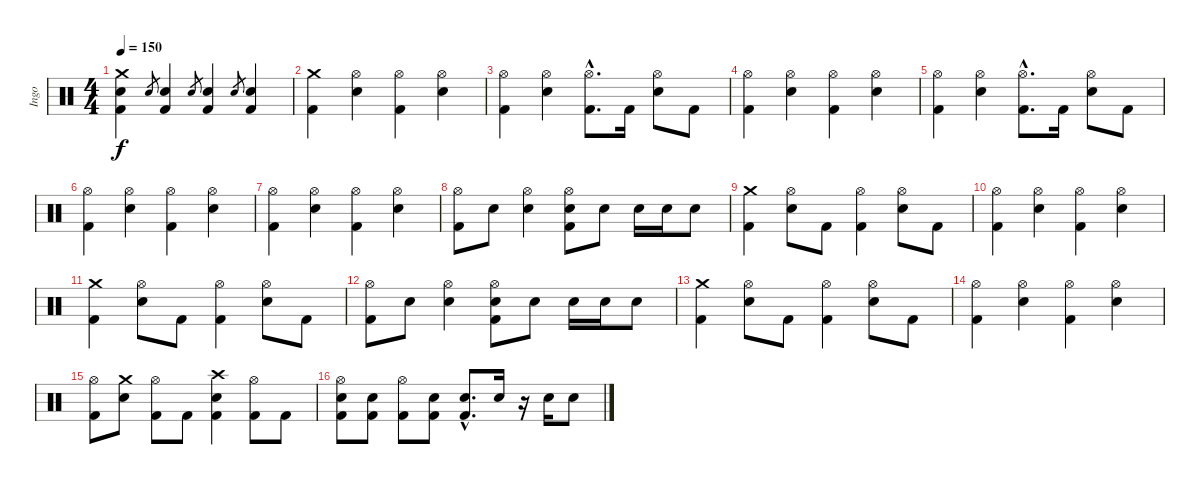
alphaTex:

\track ("Ingo" "Ingo") {instrument percussion}
\staff {score}
\articulation defaults
\ts (4 4)
\tempo 150
\clef neutral
\ks c
("Crash medium (hit)" "Electric Snare (hit)" "Kick (hit) 2").4{dy f} "Electric Snare (hit)".8{gr} ("Electric Snare (hit)" "Kick (hit) 2").4 "Electric Snare (hit)".8{gr} ("Electric Snare (hit)" "Kick (hit) 2").4 "Electric Snare (hit)".8{gr} ("Electric Snare (hit)" "Kick (hit) 2").4 |
("Crash medium (hit)" "Kick (hit) 2").4 ("Hi-Hat (open)" "Electric Snare (hit)").4 ("Hi-Hat (open)" "Kick (hit) 2").4 ("Hi-Hat (open)" "Electric Snare (hit)").4 |
("Hi-Hat (open)" "Kick (hit) 2").4 ("Hi-Hat (open)" "Electric Snare (hit)").4 ("Hi-Hat (open)"{hac} "Kick (hit) 2"{hac}).8{d} "Kick (hit) 2".16 ("Hi-Hat (open)" "Electric Snare (hit)").8 "Kick (hit) 2".8 |
("Hi-Hat (open)" "Kick (hit) 2").4 ("Hi-Hat (open)" "Electric Snare (hit)").4 ("Hi-Hat (open)" "Kick (hit) 2").4 ("Hi-Hat (open)" "Electric Snare (hit)").4 |
("Hi-Hat (open)" "Kick (hit) 2").4 ("Hi-Hat (open)" "Electric Snare (hit)").4 ("Hi-Hat (open)"{hac} "Kick (hit) 2"{hac}).8{d} "Kick (hit) 2".16 ("Hi-Hat (open)" "Electric Snare (hit)").8 "Kick (hit) 2".8 |
("Hi-Hat (open)" "Kick (hit) 2").4 ("Hi-Hat (open)" "Electric Snare (hit)").4 ("Hi-Hat (open)" "Kick (hit) 2").4 ("Hi-Hat (open)" "Electric Snare (hit)").4 |
("Hi-Hat (open)" "Kick (hit) 2").4 ("Hi-Hat (open)" "Electric Snare (hit)").4 ("Hi-Hat (open)" "Kick (hit) 2").4 ("Hi-Hat (open)" "Electric Snare (hit)").4 |
("Hi-Hat (open)" "Kick (hit) 2").8 "Electric Snare (hit)".8 ("Hi-Hat (open)" "Electric Snare (hit)").4 ("Hi-Hat (open)" "Electric Snare (hit)" "Kick (hit) 2").8 "Electric Snare (hit)".8 "Electric Snare (hit)".16 "Electric Snare (hit)".16 "Electric Snare (hit)".8 |
("Crash medium (hit)" "Kick (hit) 2").4 ("Hi-Hat (open)" "Electric Snare (hit)").8 "Kick (hit) 2".8 ("Hi-Hat (open)" "Kick (hit) 2").4 ("Hi-Hat (open)" "Electric Snare (hit)").8 "Kick (hit) 2".8 |
("Hi-Hat (open)" "Kick (hit) 2").4 ("Hi-Hat (open)" "Electric Snare (hit)").4 ("Hi-Hat (open)" "Kick (hit) 2").4 ("Hi-Hat (open)" "Electric Snare (hit)").4 |
("Crash medium (hit)" "Kick (hit) 2").4 ("Hi-Hat (open)" "Electric Snare (hit)").8 "Kick (hit) 2".8 ("Hi-Hat (open)" "Kick (hit) 2").4 ("Hi-Hat (open)" "Electric Snare (hit)").8 "Kick (hit) 2".8 |
("Hi-Hat (open)" "Kick (hit) 2").8 "Electric Snare (hit)".8 ("Hi-Hat (open)" "Electric Snare (hit)").4 ("Hi-Hat (open)" "Electric Snare (hit)" "Kick (hit) 2").8 "Electric Snare (hit)".8 "Electric Snare (hit)".16 "Electric Snare (hit)".16 "Electric Snare (hit)".8 |
("Crash medium (hit)" "Kick (hit) 2").4 ("Hi-Hat (open)" "Electric Snare (hit)").8 "Kick (hit) 2".8 ("Hi-Hat (open)" "Kick (hit) 2").4 ("Hi-Hat (open)" "Electric Snare (hit)").8 "Kick (hit) 2".8 |
("Hi-Hat (open)" "Kick (hit) 2").4 ("Hi-Hat (open)" "Electric Snare (hit)").4 ("Hi-Hat (open)" "Kick (hit) 2").4 ("Hi-Hat (open)" "Electric Snare (hit)").4 |
("Hi-Hat (open)" "Kick (hit) 2").8 ("Crash medium (hit)" "Electric Snare (hit)").8 ("Hi-Hat (open)" "Kick (hit) 2").8 "Kick (hit) 2".8 ("Crash high (hit)" "Electric Snare (hit)" "Kick (hit) 2").4 ("Hi-Hat (open)" "Kick (hit) 2").8 "Kick (hit) 2".8 |
("Hi-Hat (open)" "Electric Snare (hit)" "Kick (hit) 2").8 ("Electric Snare (hit)" "Kick (hit) 2").8 ("Hi-Hat (open)" "Kick (hit) 2").8 ("Electric Snare (hit)" "Kick (hit) 2").8 ("Electric Snare (hit)"{hac} "Kick (hit) 2"{hac}).8{d} "Electric Snare (hit)".16 r.16 "Electric Snare (hit)".16 "Electric Snare (hit)".8
